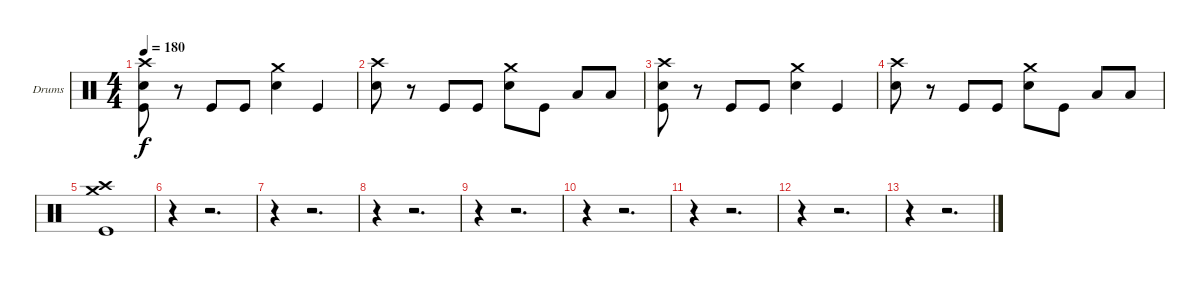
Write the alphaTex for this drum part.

\bracketExtendMode groupsimilarinstruments
\firstSystemTrackNameOrientation horizontal
\otherSystemsTrackNameOrientation horizontal
\track ("Drumkit" "Drums") {instrument percussion}
\staff {score}
\articulation defaults
\ts (4 4)
\tempo 180
\clef neutral
\ks c
("Crash high (hit)" "Snare (hit) 2" "Kick (hit)").8{dy f} r.8 "Kick (hit)".8 "Kick (hit)".8 ("Crash medium (hit)" "Snare (hit) 2").4 "Kick (hit)".4 |
("Crash high (hit)" "Snare (hit) 2").8 r.8 "Kick (hit)".8 "Kick (hit)".8 ("Crash medium (hit)" "Snare (hit) 2").8 "Kick (hit)".8 "Low Tom (hit)".8 "Low Tom (hit)".8 |
("Crash high (hit)" "Snare (hit) 2" "Kick (hit)").8 r.8 "Kick (hit)".8 "Kick (hit)".8 ("Crash medium (hit)" "Snare (hit) 2").4 "Kick (hit)".4 |
("Crash high (hit)" "Snare (hit) 2").8 r.8 "Kick (hit)".8 "Kick (hit)".8 ("Crash medium (hit)" "Snare (hit) 2").8 "Kick (hit)".8 "Low Tom (hit)".8 "Low Tom (hit)".8 |
("Crash high (hit)" "Crash medium (hit)" "Kick (hit)").1 |
r.4 r.2{d} |
r.4 r.2{d} |
r.4 r.2{d} |
r.4 r.2{d} |
r.4 r.2{d} |
r.4 r.2{d} |
r.4 r.2{d} |
r.4 r.2{d}
